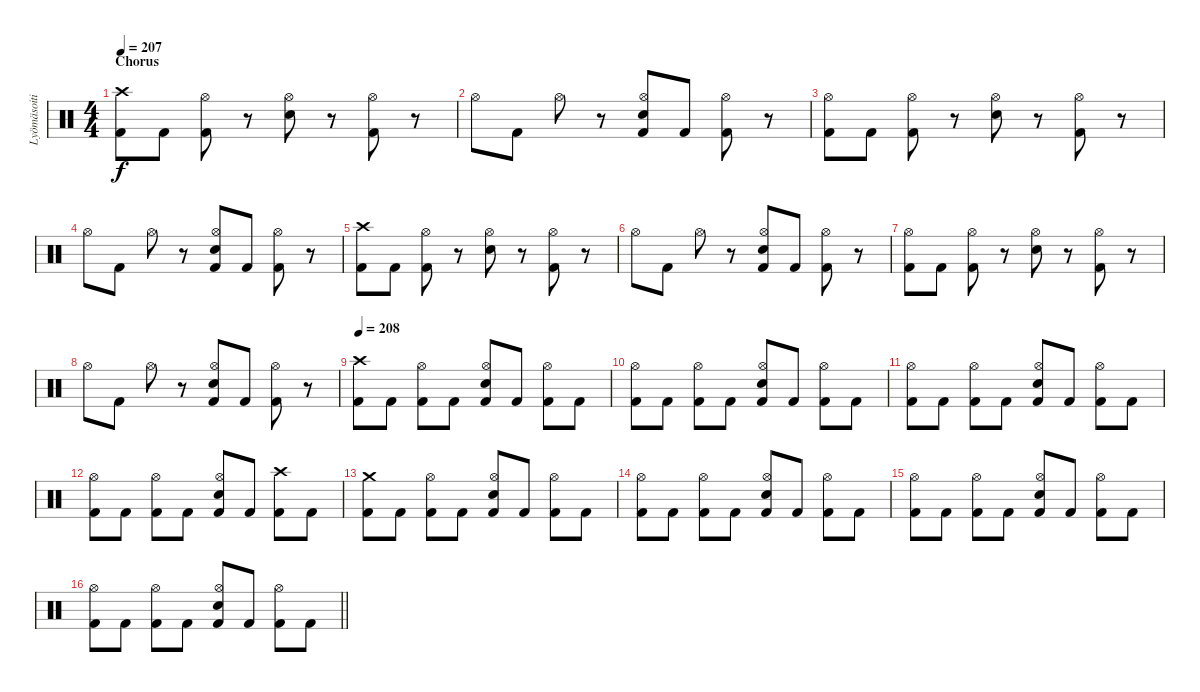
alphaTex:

\track ("Lyömäsoitin" "Lyömäsoiti") {instrument percussion}
\staff {score}
\articulation defaults
\ts (4 4)
\section ("" "Chorus")
\tempo 207
\clef neutral
\ks c
("Crash high (hit)" "Kick (hit) 2").8{dy f} "Kick (hit) 2".8 ("Hi-Hat (open)" "Kick (hit) 2").8 r.8 ("Hi-Hat (open)" "Snare (hit) 2").8 r.8 ("Hi-Hat (open)" "Kick (hit) 2").8 r.8 |
"Hi-Hat (open)".8 "Kick (hit) 2".8 "Hi-Hat (open)".8 r.8 ("Hi-Hat (open)" "Snare (hit) 2" "Kick (hit) 2").8 "Kick (hit) 2".8 ("Hi-Hat (open)" "Kick (hit) 2").8 r.8 |
("Hi-Hat (open)" "Kick (hit) 2").8 "Kick (hit) 2".8 ("Hi-Hat (open)" "Kick (hit) 2").8 r.8 ("Hi-Hat (open)" "Snare (hit) 2").8 r.8 ("Hi-Hat (open)" "Kick (hit) 2").8 r.8 |
"Hi-Hat (open)".8 "Kick (hit) 2".8 "Hi-Hat (open)".8 r.8 ("Hi-Hat (open)" "Snare (hit) 2" "Kick (hit) 2").8 "Kick (hit) 2".8 ("Hi-Hat (open)" "Kick (hit) 2").8 r.8 |
("Crash high (hit)" "Kick (hit) 2").8 "Kick (hit) 2".8 ("Hi-Hat (open)" "Kick (hit) 2").8 r.8 ("Hi-Hat (open)" "Snare (hit) 2").8 r.8 ("Hi-Hat (open)" "Kick (hit) 2").8 r.8 |
"Hi-Hat (open)".8 "Kick (hit) 2".8 "Hi-Hat (open)".8 r.8 ("Hi-Hat (open)" "Snare (hit) 2" "Kick (hit) 2").8 "Kick (hit) 2".8 ("Hi-Hat (open)" "Kick (hit) 2").8 r.8 |
("Hi-Hat (open)" "Kick (hit) 2").8 "Kick (hit) 2".8 ("Hi-Hat (open)" "Kick (hit) 2").8 r.8 ("Hi-Hat (open)" "Snare (hit) 2").8 r.8 ("Hi-Hat (open)" "Kick (hit) 2").8 r.8 |
"Hi-Hat (open)".8 "Kick (hit) 2".8 "Hi-Hat (open)".8 r.8 ("Hi-Hat (open)" "Snare (hit) 2" "Kick (hit) 2").8 "Kick (hit) 2".8 ("Hi-Hat (open)" "Kick (hit) 2").8 r.8 |
\tempo 208
("Crash high (hit)" "Kick (hit) 2").8 "Kick (hit) 2".8 ("Hi-Hat (open)" "Kick (hit) 2").8 "Kick (hit) 2".8 ("Hi-Hat (open)" "Snare (hit) 2" "Kick (hit) 2").8 "Kick (hit) 2".8 ("Hi-Hat (open)" "Kick (hit) 2").8 "Kick (hit) 2".8 |
("Hi-Hat (open)" "Kick (hit) 2").8 "Kick (hit) 2".8 ("Hi-Hat (open)" "Kick (hit) 2").8 "Kick (hit) 2".8 ("Hi-Hat (open)" "Snare (hit) 2" "Kick (hit) 2").8 "Kick (hit) 2".8 ("Hi-Hat (open)" "Kick (hit) 2").8 "Kick (hit) 2".8 |
("Hi-Hat (open)" "Kick (hit) 2").8 "Kick (hit) 2".8 ("Hi-Hat (open)" "Kick (hit) 2").8 "Kick (hit) 2".8 ("Hi-Hat (open)" "Snare (hit) 2" "Kick (hit) 2").8 "Kick (hit) 2".8 ("Hi-Hat (open)" "Kick (hit) 2").8 "Kick (hit) 2".8 |
("Hi-Hat (open)" "Kick (hit) 2").8 "Kick (hit) 2".8 ("Hi-Hat (open)" "Kick (hit) 2").8 "Kick (hit) 2".8 ("Hi-Hat (open)" "Snare (hit) 2" "Kick (hit) 2").8 "Kick (hit) 2".8 ("Crash high (hit)" "Kick (hit) 2").8 "Kick (hit) 2".8 |
("Crash medium (hit)" "Kick (hit) 2").8 "Kick (hit) 2".8 ("Hi-Hat (open)" "Kick (hit) 2").8 "Kick (hit) 2".8 ("Hi-Hat (open)" "Snare (hit) 2" "Kick (hit) 2").8 "Kick (hit) 2".8 ("Hi-Hat (open)" "Kick (hit) 2").8 "Kick (hit) 2".8 |
("Hi-Hat (open)" "Kick (hit) 2").8 "Kick (hit) 2".8 ("Hi-Hat (open)" "Kick (hit) 2").8 "Kick (hit) 2".8 ("Hi-Hat (open)" "Snare (hit) 2" "Kick (hit) 2").8 "Kick (hit) 2".8 ("Hi-Hat (open)" "Kick (hit) 2").8 "Kick (hit) 2".8 |
("Hi-Hat (open)" "Kick (hit) 2").8 "Kick (hit) 2".8 ("Hi-Hat (open)" "Kick (hit) 2").8 "Kick (hit) 2".8 ("Hi-Hat (open)" "Snare (hit) 2" "Kick (hit) 2").8 "Kick (hit) 2".8 ("Hi-Hat (open)" "Kick (hit) 2").8 "Kick (hit) 2".8 |
\barLineRight lightlight
("Hi-Hat (open)" "Kick (hit) 2").8 "Kick (hit) 2".8 ("Hi-Hat (open)" "Kick (hit) 2").8 "Kick (hit) 2".8 ("Hi-Hat (open)" "Snare (hit) 2" "Kick (hit) 2").8 "Kick (hit) 2".8 ("Hi-Hat (open)" "Kick (hit) 2").8 "Kick (hit) 2".8
